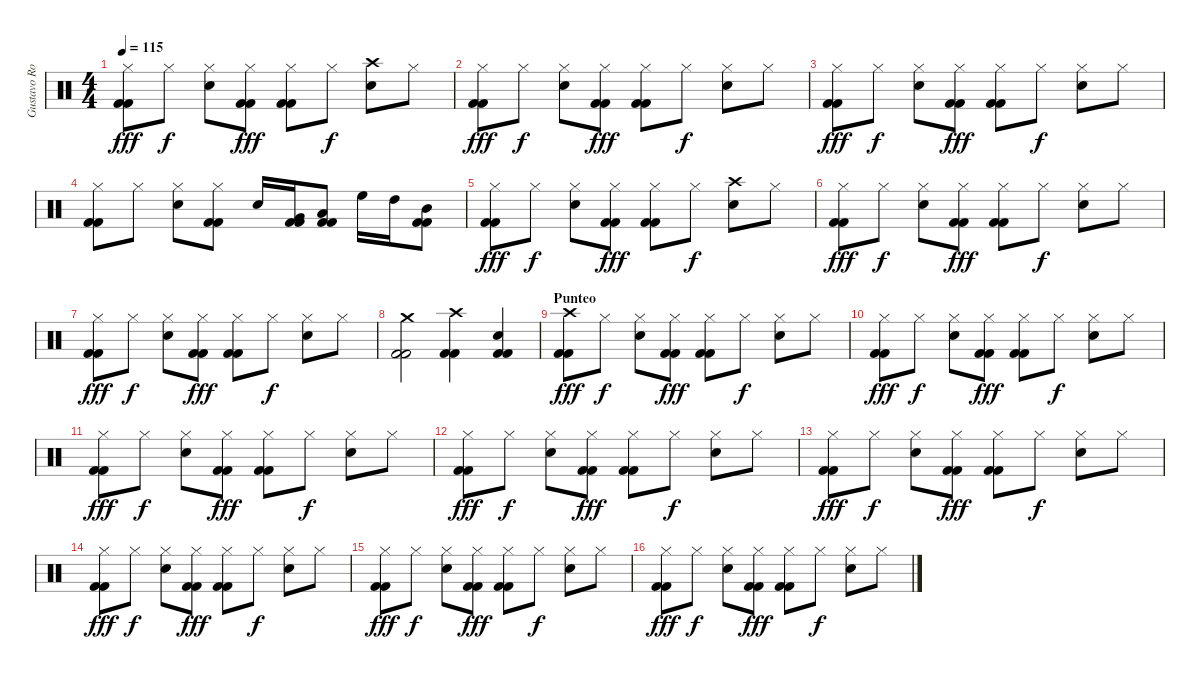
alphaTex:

\track ("Gustavo Rowek" "Gustavo Ro") {instrument percussion}
\staff {score}
\articulation defaults
\ts (4 4)
\tempo 115
\clef neutral
\ks c
("Kick (hit) 2" "Kick (hit) 2" "Hi-Hat (closed)").8{dy fff} "Hi-Hat (closed)".8{dy f} ("Snare (hit) 2" "Hi-Hat (closed)").8 ("Kick (hit) 2" "Kick (hit) 2" "Hi-Hat (closed)").8{dy fff} ("Kick (hit) 2" "Kick (hit) 2" "Hi-Hat (closed)").8 "Hi-Hat (closed)".8{dy f} ("Snare (hit) 2" "Crash high (hit)").8 "Hi-Hat (closed)".8 |
("Kick (hit) 2" "Kick (hit) 2" "Hi-Hat (closed)").8{dy fff} "Hi-Hat (closed)".8{dy f} ("Snare (hit) 2" "Hi-Hat (closed)").8 ("Kick (hit) 2" "Kick (hit) 2" "Hi-Hat (closed)").8{dy fff} ("Kick (hit) 2" "Kick (hit) 2" "Hi-Hat (closed)").8 "Hi-Hat (closed)".8{dy f} ("Snare (hit) 2" "Hi-Hat (closed)").8 "Hi-Hat (closed)".8 |
("Kick (hit) 2" "Kick (hit) 2" "Hi-Hat (closed)").8{dy fff} "Hi-Hat (closed)".8{dy f} ("Snare (hit) 2" "Hi-Hat (closed)").8 ("Kick (hit) 2" "Kick (hit) 2" "Hi-Hat (closed)").8{dy fff} ("Kick (hit) 2" "Kick (hit) 2" "Hi-Hat (closed)").8 "Hi-Hat (closed)".8{dy f} ("Snare (hit) 2" "Hi-Hat (closed)").8 "Hi-Hat (closed)".8 |
("Kick (hit) 2" "Kick (hit) 2" "Hi-Hat (closed)").8 "Hi-Hat (closed)".8 ("Snare (hit) 2" "Hi-Hat (closed)").8 ("Kick (hit) 2" "Kick (hit) 2" "Hi-Hat (closed)").8 "Snare (hit) 2".16 ("Kick (hit) 2" "Kick (hit) 2" "Very Low Tom (hit)").16 ("Kick (hit) 2" "Kick (hit) 2" "Low Floor Tom (hit)").8 "High Floor Tom (hit)".16 "High Tom (hit)".16 ("Kick (hit) 2" "Kick (hit) 2" "Mid Tom (hit)").8 |
("Kick (hit) 2" "Kick (hit) 2" "Hi-Hat (closed)").8{dy fff} "Hi-Hat (closed)".8{dy f} ("Snare (hit) 2" "Hi-Hat (closed)").8 ("Kick (hit) 2" "Kick (hit) 2" "Hi-Hat (closed)").8{dy fff} ("Kick (hit) 2" "Kick (hit) 2" "Hi-Hat (closed)").8 "Hi-Hat (closed)".8{dy f} ("Snare (hit) 2" "Crash high (hit)").8 "Hi-Hat (closed)".8 |
("Kick (hit) 2" "Kick (hit) 2" "Hi-Hat (closed)").8{dy fff} "Hi-Hat (closed)".8{dy f} ("Snare (hit) 2" "Hi-Hat (closed)").8 ("Kick (hit) 2" "Kick (hit) 2" "Hi-Hat (closed)").8{dy fff} ("Kick (hit) 2" "Kick (hit) 2" "Hi-Hat (closed)").8 "Hi-Hat (closed)".8{dy f} ("Snare (hit) 2" "Hi-Hat (closed)").8 "Hi-Hat (closed)".8 |
("Kick (hit) 2" "Kick (hit) 2" "Hi-Hat (closed)").8{dy fff} "Hi-Hat (closed)".8{dy f} ("Snare (hit) 2" "Hi-Hat (closed)").8 ("Kick (hit) 2" "Kick (hit) 2" "Hi-Hat (closed)").8{dy fff} ("Kick (hit) 2" "Kick (hit) 2" "Hi-Hat (closed)").8 "Hi-Hat (closed)".8{dy f} ("Snare (hit) 2" "Hi-Hat (closed)").8 "Hi-Hat (closed)".8 |
("Kick (hit) 2" "Kick (hit) 2" "Crash medium (hit)").2 ("Kick (hit) 2" "Kick (hit) 2" "Crash high (hit)").4 ("Kick (hit) 2" "Kick (hit) 2" "Snare (hit) 2").4 |
\section ("" "Punteo")
("Kick (hit) 2" "Kick (hit) 2" "Crash high (hit)").8{dy fff} "Hi-Hat (closed)".8{dy f} ("Snare (hit) 2" "Hi-Hat (closed)").8 ("Kick (hit) 2" "Kick (hit) 2" "Hi-Hat (closed)").8{dy fff} ("Kick (hit) 2" "Kick (hit) 2" "Hi-Hat (closed)").8 "Hi-Hat (closed)".8{dy f} ("Snare (hit) 2" "Hi-Hat (closed)").8 "Hi-Hat (closed)".8 |
("Kick (hit) 2" "Kick (hit) 2" "Hi-Hat (closed)").8{dy fff} "Hi-Hat (closed)".8{dy f} ("Snare (hit) 2" "Hi-Hat (closed)").8 ("Kick (hit) 2" "Kick (hit) 2" "Hi-Hat (closed)").8{dy fff} ("Kick (hit) 2" "Kick (hit) 2" "Hi-Hat (closed)").8 "Hi-Hat (closed)".8{dy f} ("Snare (hit) 2" "Hi-Hat (closed)").8 "Hi-Hat (closed)".8 |
("Kick (hit) 2" "Kick (hit) 2" "Hi-Hat (closed)").8{dy fff} "Hi-Hat (closed)".8{dy f} ("Snare (hit) 2" "Hi-Hat (closed)").8 ("Kick (hit) 2" "Kick (hit) 2" "Hi-Hat (closed)").8{dy fff} ("Kick (hit) 2" "Kick (hit) 2" "Hi-Hat (closed)").8 "Hi-Hat (closed)".8{dy f} ("Snare (hit) 2" "Hi-Hat (closed)").8 "Hi-Hat (closed)".8 |
("Kick (hit) 2" "Kick (hit) 2" "Hi-Hat (closed)").8{dy fff} "Hi-Hat (closed)".8{dy f} ("Snare (hit) 2" "Hi-Hat (closed)").8 ("Kick (hit) 2" "Kick (hit) 2" "Hi-Hat (closed)").8{dy fff} ("Kick (hit) 2" "Kick (hit) 2" "Hi-Hat (closed)").8 "Hi-Hat (closed)".8{dy f} ("Snare (hit) 2" "Hi-Hat (closed)").8 "Hi-Hat (closed)".8 |
("Kick (hit) 2" "Kick (hit) 2" "Hi-Hat (closed)").8{dy fff} "Hi-Hat (closed)".8{dy f} ("Snare (hit) 2" "Hi-Hat (closed)").8 ("Kick (hit) 2" "Kick (hit) 2" "Hi-Hat (closed)").8{dy fff} ("Kick (hit) 2" "Kick (hit) 2" "Hi-Hat (closed)").8 "Hi-Hat (closed)".8{dy f} ("Snare (hit) 2" "Hi-Hat (closed)").8 "Hi-Hat (closed)".8 |
("Kick (hit) 2" "Kick (hit) 2" "Hi-Hat (closed)").8{dy fff} "Hi-Hat (closed)".8{dy f} ("Snare (hit) 2" "Hi-Hat (closed)").8 ("Kick (hit) 2" "Kick (hit) 2" "Hi-Hat (closed)").8{dy fff} ("Kick (hit) 2" "Kick (hit) 2" "Hi-Hat (closed)").8 "Hi-Hat (closed)".8{dy f} ("Snare (hit) 2" "Hi-Hat (closed)").8 "Hi-Hat (closed)".8 |
("Kick (hit) 2" "Kick (hit) 2" "Hi-Hat (closed)").8{dy fff} "Hi-Hat (closed)".8{dy f} ("Snare (hit) 2" "Hi-Hat (closed)").8 ("Kick (hit) 2" "Kick (hit) 2" "Hi-Hat (closed)").8{dy fff} ("Kick (hit) 2" "Kick (hit) 2" "Hi-Hat (closed)").8 "Hi-Hat (closed)".8{dy f} ("Snare (hit) 2" "Hi-Hat (closed)").8 "Hi-Hat (closed)".8 |
("Kick (hit) 2" "Kick (hit) 2" "Hi-Hat (closed)").8{dy fff} "Hi-Hat (closed)".8{dy f} ("Snare (hit) 2" "Hi-Hat (closed)").8 ("Kick (hit) 2" "Kick (hit) 2" "Hi-Hat (closed)").8{dy fff} ("Kick (hit) 2" "Kick (hit) 2" "Hi-Hat (closed)").8 "Hi-Hat (closed)".8{dy f} ("Snare (hit) 2" "Hi-Hat (closed)").8 "Hi-Hat (closed)".8
